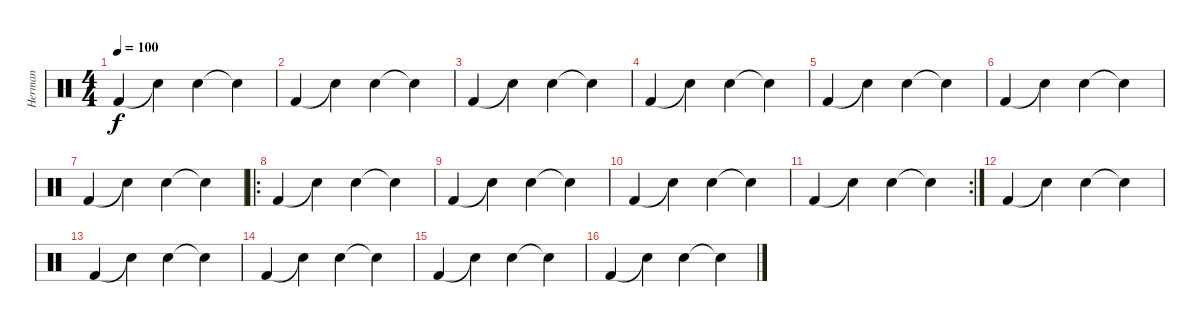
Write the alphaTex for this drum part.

\track ("Herman" "Herman") {instrument percussion}
\staff {score}
\articulation defaults
\ts (4 4)
\tempo 100
\clef neutral
\ks c "Kick (hit) 2".4{dy f} "Snare (hit)"{t}.4 "Snare (hit) 2".4 "Snare (hit)"{t}.4
|
"Kick (hit) 2".4 "Snare (hit)"{t}.4 "Snare (hit) 2".4 "Snare (hit)"{t}.4 |
"Kick (hit) 2".4 "Snare (hit)"{t}.4 "Snare (hit) 2".4 "Snare (hit)"{t}.4 |
"Kick (hit) 2".4 "Snare (hit)"{t}.4 "Snare (hit) 2".4 "Snare (hit)"{t}.4 |
"Kick (hit) 2".4 "Snare (hit)"{t}.4 "Snare (hit) 2".4 "Snare (hit)"{t}.4 |
"Kick (hit) 2".4 "Snare (hit)"{t}.4 "Snare (hit) 2".4 "Snare (hit)"{t}.4 |
"Kick (hit) 2".4 "Snare (hit)"{t}.4 "Snare (hit) 2".4 "Snare (hit)"{t}.4 |
\ro "Kick (hit) 2".4 "Snare (hit)"{t}.4 "Snare (hit) 2".4 "Snare (hit)"{t}.4
|
"Kick (hit) 2".4 "Snare (hit)"{t}.4 "Snare (hit) 2".4 "Snare (hit)"{t}.4 |
"Kick (hit) 2".4 "Snare (hit)"{t}.4 "Snare (hit) 2".4 "Snare (hit)"{t}.4 |
\rc 2 "Kick (hit) 2".4 "Snare (hit)"{t}.4 "Snare (hit) 2".4 "Snare (hit)"{t}.4
|
"Kick (hit) 2".4 "Snare (hit)"{t}.4 "Snare (hit) 2".4 "Snare (hit)"{t}.4 |
"Kick (hit) 2".4 "Snare (hit)"{t}.4 "Snare (hit) 2".4 "Snare (hit)"{t}.4 |
"Kick (hit) 2".4 "Snare (hit)"{t}.4 "Snare (hit) 2".4 "Snare (hit)"{t}.4 |
"Kick (hit) 2".4 "Snare (hit)"{t}.4 "Snare (hit) 2".4 "Snare (hit)"{t}.4 |
"Kick (hit) 2".4 "Snare (hit)"{t}.4 "Snare (hit) 2".4 "Snare (hit)"{t}.4
